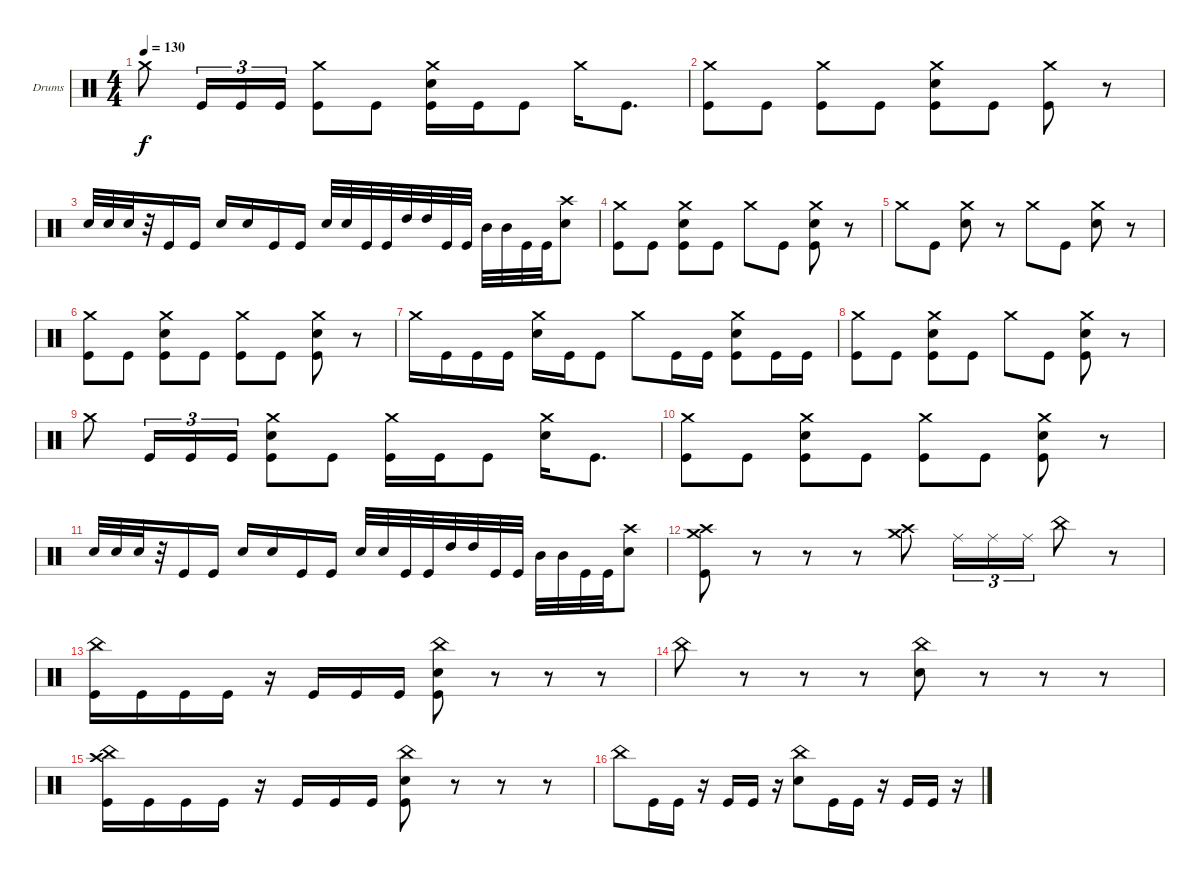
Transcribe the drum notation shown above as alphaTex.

\bracketExtendMode groupsimilarinstruments
\firstSystemTrackNameOrientation horizontal
\otherSystemsTrackNameOrientation horizontal
\track ("Boum Boum" "Drums") {instrument percussion}
\staff {score}
\articulation defaults
\ts (4 4)
\tempo 130
\clef neutral
\ks c "Crash medium (hit)".8{dy f} "Kick (hit)".16{tu (3 2)} "Kick (hit)".16{tu (3 2)} "Kick (hit)".16{tu (3 2)}
("Kick (hit)" "Crash medium (hit)").8 "Kick (hit)".8 ("Crash medium (hit)" "Snare (hit) 2" "Kick (hit)").16 "Kick (hit)".16 "Kick (hit)".8 "Crash medium (hit)".16 "Kick (hit)".8{d} |
("Crash medium (hit)" "Kick (hit)").8 "Kick (hit)".8 ("Kick (hit)" "Crash medium (hit)").8 "Kick (hit)".8 ("Kick (hit)" "Snare (hit) 2" "Crash medium (hit)").8 "Kick (hit)".8 ("Kick (hit)" "Crash medium (hit)").8 r.8 |
"Snare (hit) 2".32 "Snare (hit) 2".32 "Snare (hit) 2".32 r.32 "Kick (hit)".16 "Kick (hit)".16 "Snare (hit) 2".16 "Snare (hit) 2".16 "Kick (hit)".16 "Kick (hit)".16 "Snare (hit) 2".32 "Snare (hit) 2".32 "Kick (hit)".32 "Kick (hit)".32 "High Tom (hit)".32 "High Tom (hit)".32 "Kick (hit)".32 "Kick (hit)".32 "Mid Tom (hit)".32 "Mid Tom (hit)".32 "Kick (hit)".32 "Kick (hit)".32 ("Snare (hit) 2" "Crash high (hit)").8 |
("Kick (hit)" "Crash medium (hit)").8 "Kick (hit)".8 ("Kick (hit)" "Crash medium (hit)" "Snare (hit) 2").8 "Kick (hit)".8 "Crash medium (hit)".8 "Kick (hit)".8 ("Kick (hit)" "Crash medium (hit)" "Snare (hit) 2").8 r.8 |
"Crash medium (hit)".8 "Kick (hit)".8 ("Crash medium (hit)" "Snare (hit) 2").8 r.8 "Crash medium (hit)".8 "Kick (hit)".8 ("Crash medium (hit)" "Snare (hit) 2").8 r.8 |
("Kick (hit)" "Crash medium (hit)").8 "Kick (hit)".8 ("Kick (hit)" "Crash medium (hit)" "Snare (hit) 2").8 "Kick (hit)".8 ("Kick (hit)" "Crash medium (hit)").8 "Kick (hit)".8 ("Kick (hit)" "Crash medium (hit)" "Snare (hit) 2").8 r.8 |
"Crash medium (hit)".16 "Kick (hit)".16 "Kick (hit)".16 "Kick (hit)".16 ("Crash medium (hit)" "Snare (hit) 2").16 "Kick (hit)".16 "Kick (hit)".8 "Crash medium (hit)".8 "Kick (hit)".16 "Kick (hit)".16 ("Kick (hit)" "Crash medium (hit)" "Snare (hit) 2").8 "Kick (hit)".16 "Kick (hit)".16 |
("Kick (hit)" "Crash medium (hit)").8 "Kick (hit)".8 ("Kick (hit)" "Crash medium (hit)" "Snare (hit) 2").8 "Kick (hit)".8 "Crash medium (hit)".8 "Kick (hit)".8 ("Kick (hit)" "Crash medium (hit)" "Snare (hit) 2").8 r.8 |
"Crash medium (hit)".8 "Kick (hit)".16{tu (3 2)} "Kick (hit)".16{tu (3 2)} "Kick (hit)".16{tu (3 2)} ("Kick (hit)" "Crash medium (hit)" "Snare (hit) 2").8 "Kick (hit)".8 ("Crash medium (hit)" "Kick (hit)").16 "Kick (hit)".16 "Kick (hit)".8 ("Crash medium (hit)" "Snare (hit) 2").16 "Kick (hit)".8{d} |
("Crash medium (hit)" "Kick (hit)").8 "Kick (hit)".8 ("Kick (hit)" "Crash medium (hit)" "Snare (hit) 2").8 "Kick (hit)".8 ("Kick (hit)" "Crash medium (hit)").8 "Kick (hit)".8 ("Kick (hit)" "Crash medium (hit)" "Snare (hit) 2").8 r.8 |
"Snare (hit) 2".32 "Snare (hit) 2".32 "Snare (hit) 2".32 r.32 "Kick (hit)".16 "Kick (hit)".16 "Snare (hit) 2".16 "Snare (hit) 2".16 "Kick (hit)".16 "Kick (hit)".16 "Snare (hit) 2".32 "Snare (hit) 2".32 "Kick (hit)".32 "Kick (hit)".32 "High Tom (hit)".32 "High Tom (hit)".32 "Kick (hit)".32 "Kick (hit)".32 "Mid Tom (hit)".32 "Mid Tom (hit)".32 "Kick (hit)".32 "Kick (hit)".32 ("Snare (hit) 2" "Crash high (hit)").8 |
("Kick (hit)" "Crash medium (hit)" "Crash high (hit)").8 r.8 r.8 r.8 ("Crash medium (hit)" "Crash high (hit)").8 "Ride (middle)".16{tu (3 2)} "Ride (middle)".16{tu (3 2)} "Ride (middle)".16{tu (3 2)} "China (hit)".8 r.8 |
("China (hit)" "Kick (hit)").16 "Kick (hit)".16 "Kick (hit)".16 "Kick (hit)".16 r.16 "Kick (hit)".16 "Kick (hit)".16 "Kick (hit)".16 ("Kick (hit)" "Snare (hit) 2" "China (hit)").8 r.8 r.8 r.8 |
"China (hit)".8 r.8 r.8 r.8 ("China (hit)" "Snare (hit) 2").8 r.8 r.8 r.8 |
("Kick (hit)" "China (hit)" "Crash high (hit)").16 "Kick (hit)".16 "Kick (hit)".16 "Kick (hit)".16 r.16 "Kick (hit)".16 "Kick (hit)".16 "Kick (hit)".16 ("Kick (hit)" "Snare (hit) 2" "China (hit)").8 r.8 r.8 r.8 |
"China (hit)".8 "Kick (hit)".16 "Kick (hit)".16 r.16 "Kick (hit)".16 "Kick (hit)".16 r.16 ("Snare (hit) 2" "China (hit)").8 "Kick (hit)".16 "Kick (hit)".16 r.16 "Kick (hit)".16 "Kick (hit)".16 r.16
